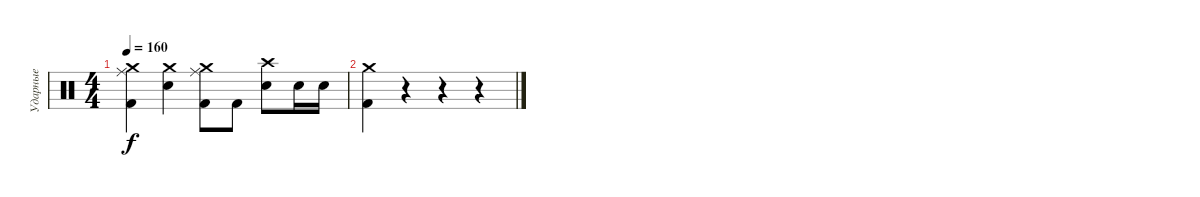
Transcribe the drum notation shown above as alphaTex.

\track ("Ударные" "Ударные") {instrument percussion}
\staff {score}
\articulation defaults
\ts (4 4)
\tempo 160
\clef neutral
\ks c
("Kick (hit) 2" "Crash medium (hit)" "Ride (middle)").4{dy f} ("Electric Snare (hit)" "Crash medium (hit)").4 ("Kick (hit) 2" "Crash medium (hit)" "Ride (middle)").8 "Kick (hit) 2".8 ("Electric Snare (hit)" "Crash high (hit)").8 "Electric Snare (hit)".16 "Electric Snare (hit)".16 |
("Crash medium (hit)" "Kick (hit) 2").4 r.4 r.4 r.4
